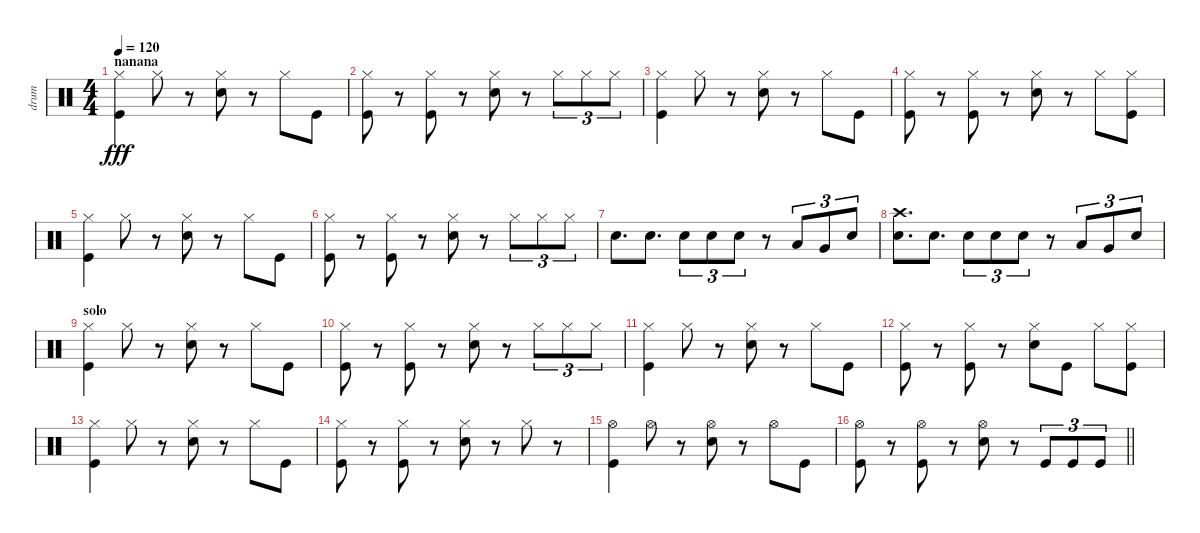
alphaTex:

\track ("drum" "drum") {instrument percussion}
\staff {score}
\articulation defaults
\ts (4 4)
\section ("" "nanana")
\tempo 120
\clef neutral
\ks c
("Hi-Hat (closed)" "Kick (hit)").4{dy fff} "Hi-Hat (closed)".8 r.8 ("Hi-Hat (closed)" "Hand Clap (hit)").8 r.8 "Hi-Hat (closed)".8 "Kick (hit)".8 |
("Hi-Hat (closed)" "Kick (hit)").8 r.8 ("Hi-Hat (closed)" "Kick (hit)").8 r.8 ("Hi-Hat (closed)" "Hand Clap (hit)").8 r.8 "Hi-Hat (closed)".8{tu (3 2)} "Hi-Hat (closed)".8{tu (3 2)} "Hi-Hat (closed)".8{tu (3 2)} |
("Hi-Hat (closed)" "Kick (hit)").4 "Hi-Hat (closed)".8 r.8 ("Hi-Hat (closed)" "Hand Clap (hit)").8 r.8 "Hi-Hat (closed)".8 "Kick (hit)".8 |
("Hi-Hat (closed)" "Kick (hit)").8 r.8 ("Hi-Hat (closed)" "Kick (hit)").8 r.8 ("Hi-Hat (closed)" "Hand Clap (hit)").8 r.8 "Hi-Hat (closed)".8 ("Hi-Hat (closed)" "Kick (hit)").8 |
("Hi-Hat (closed)" "Kick (hit)").4 "Hi-Hat (closed)".8 r.8 ("Hi-Hat (closed)" "Hand Clap (hit)").8 r.8 "Hi-Hat (closed)".8 "Kick (hit)".8 |
("Hi-Hat (closed)" "Kick (hit)").8 r.8 ("Hi-Hat (closed)" "Kick (hit)").8 r.8 ("Hi-Hat (closed)" "Hand Clap (hit)").8 r.8 "Hi-Hat (closed)".8{tu (3 2)} "Hi-Hat (closed)".8{tu (3 2)} "Hi-Hat (closed)".8{tu (3 2)} |
"Electric Snare (hit)".8{d} "Electric Snare (hit)".8{d} "Electric Snare (hit)".8{tu (3 2)} "Electric Snare (hit)".8{tu (3 2)} "Electric Snare (hit)".8{tu (3 2)} r.8 "Low Tom (hit)".8{tu (3 2)} "Very Low Tom (hit)".8{tu (3 2)} "Electric Snare (hit)".8{tu (3 2)} |
("Crash high (hit)" "Electric Snare (hit)").8{d} "Electric Snare (hit)".8{d} "Electric Snare (hit)".8{tu (3 2)} "Electric Snare (hit)".8{tu (3 2)} "Electric Snare (hit)".8{tu (3 2)} r.8 "Low Tom (hit)".8{tu (3 2)} "Very Low Tom (hit)".8{tu (3 2)} "Electric Snare (hit)".8{tu (3 2)} |
\section ("" "solo")
("Hi-Hat (closed)" "Kick (hit)").4 "Hi-Hat (closed)".8 r.8 ("Hi-Hat (closed)" "Hand Clap (hit)").8 r.8 "Hi-Hat (closed)".8 "Kick (hit)".8 |
("Hi-Hat (closed)" "Kick (hit)").8 r.8 ("Hi-Hat (closed)" "Kick (hit)").8 r.8 ("Hi-Hat (closed)" "Hand Clap (hit)").8 r.8 "Hi-Hat (closed)".8{tu (3 2)} "Hi-Hat (closed)".8{tu (3 2)} "Hi-Hat (closed)".8{tu (3 2)} |
("Hi-Hat (closed)" "Kick (hit)").4 "Hi-Hat (closed)".8 r.8 ("Hi-Hat (closed)" "Hand Clap (hit)").8 r.8 "Hi-Hat (closed)".8 "Kick (hit)".8 |
("Hi-Hat (closed)" "Kick (hit)").8 r.8 ("Hi-Hat (closed)" "Kick (hit)").8 r.8 ("Hi-Hat (closed)" "Hand Clap (hit)").8 "Kick (hit)".8 "Hi-Hat (closed)".8 ("Hi-Hat (closed)" "Kick (hit)").8 |
("Hi-Hat (closed)" "Kick (hit)").4 "Hi-Hat (closed)".8 r.8 ("Hi-Hat (closed)" "Hand Clap (hit)").8 r.8 "Hi-Hat (closed)".8 "Kick (hit)".8 |
("Hi-Hat (closed)" "Kick (hit)").8 r.8 ("Hi-Hat (closed)" "Kick (hit)").8 r.8 ("Hi-Hat (closed)" "Hand Clap (hit)").8 r.8 "Hi-Hat (closed)".8 r.8 |
("Hi-Hat (open)" "Kick (hit)").4 "Hi-Hat (open)".8 r.8 ("Hi-Hat (open)" "Hand Clap (hit)").8 r.8 "Hi-Hat (open)".8 "Kick (hit)".8 |
\barLineRight lightlight
("Hi-Hat (open)" "Kick (hit)").8 r.8 ("Hi-Hat (open)" "Kick (hit)").8 r.8 ("Hi-Hat (open)" "Hand Clap (hit)").8 r.8 "Kick (hit)".8{tu (3 2)} "Kick (hit)".8{tu (3 2)} "Kick (hit)".8{tu (3 2)}
